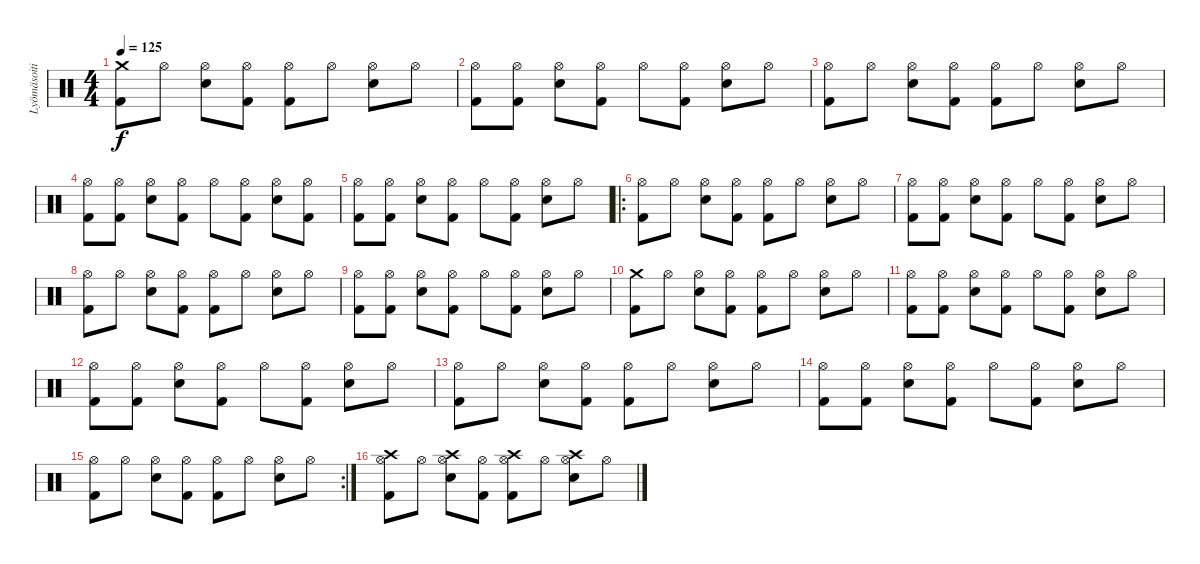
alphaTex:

\track ("Lyömäsoitin" "Lyömäsoiti") {instrument percussion}
\staff {score}
\articulation defaults
\ts (4 4)
\tempo 125
\clef neutral
\ks c
("Crash medium (hit)" "Kick (hit) 2").8{dy f} "Hi-Hat (open)".8 ("Hi-Hat (open)" "Snare (hit) 2").8 ("Hi-Hat (open)" "Kick (hit) 2").8 ("Hi-Hat (open)" "Kick (hit) 2").8 "Hi-Hat (open)".8 ("Hi-Hat (open)" "Snare (hit) 2").8 "Hi-Hat (open)".8 |
("Hi-Hat (open)" "Kick (hit) 2").8 ("Hi-Hat (open)" "Kick (hit) 2").8 ("Hi-Hat (open)" "Snare (hit) 2").8 ("Hi-Hat (open)" "Kick (hit) 2").8 "Hi-Hat (open)".8 ("Hi-Hat (open)" "Kick (hit) 2").8 ("Hi-Hat (open)" "Snare (hit) 2").8 "Hi-Hat (open)".8 |
("Hi-Hat (open)" "Kick (hit) 2").8 "Hi-Hat (open)".8 ("Hi-Hat (open)" "Snare (hit) 2").8 ("Hi-Hat (open)" "Kick (hit) 2").8 ("Hi-Hat (open)" "Kick (hit) 2").8 "Hi-Hat (open)".8 ("Hi-Hat (open)" "Snare (hit) 2").8 "Hi-Hat (open)".8 |
("Hi-Hat (open)" "Kick (hit) 2").8 ("Hi-Hat (open)" "Kick (hit) 2").8 ("Hi-Hat (open)" "Snare (hit) 2").8 ("Hi-Hat (open)" "Kick (hit) 2").8 "Hi-Hat (open)".8 ("Hi-Hat (open)" "Kick (hit) 2").8 ("Hi-Hat (open)" "Snare (hit) 2").8 ("Hi-Hat (open)" "Kick (hit) 2").8 |
("Hi-Hat (open)" "Kick (hit) 2").8 ("Hi-Hat (open)" "Kick (hit) 2").8 ("Hi-Hat (open)" "Snare (hit) 2").8 ("Hi-Hat (open)" "Kick (hit) 2").8 "Hi-Hat (open)".8 ("Hi-Hat (open)" "Kick (hit) 2").8 ("Hi-Hat (open)" "Snare (hit) 2").8 "Hi-Hat (open)".8 |
\ro
("Hi-Hat (open)" "Kick (hit) 2").8 "Hi-Hat (open)".8 ("Hi-Hat (open)" "Snare (hit) 2").8 ("Hi-Hat (open)" "Kick (hit) 2").8 ("Hi-Hat (open)" "Kick (hit) 2").8 "Hi-Hat (open)".8 ("Hi-Hat (open)" "Snare (hit) 2").8 "Hi-Hat (open)".8 |
("Hi-Hat (open)" "Kick (hit) 2").8 ("Hi-Hat (open)" "Kick (hit) 2").8 ("Hi-Hat (open)" "Snare (hit) 2").8 ("Hi-Hat (open)" "Kick (hit) 2").8 "Hi-Hat (open)".8 ("Hi-Hat (open)" "Kick (hit) 2").8 ("Hi-Hat (open)" "Snare (hit) 2").8 "Hi-Hat (open)".8 |
("Hi-Hat (open)" "Kick (hit) 2").8 "Hi-Hat (open)".8 ("Hi-Hat (open)" "Snare (hit) 2").8 ("Hi-Hat (open)" "Kick (hit) 2").8 ("Hi-Hat (open)" "Kick (hit) 2").8 "Hi-Hat (open)".8 ("Hi-Hat (open)" "Snare (hit) 2").8 "Hi-Hat (open)".8 |
("Hi-Hat (open)" "Kick (hit) 2").8 ("Hi-Hat (open)" "Kick (hit) 2").8 ("Hi-Hat (open)" "Snare (hit) 2").8 ("Hi-Hat (open)" "Kick (hit) 2").8 "Hi-Hat (open)".8 ("Hi-Hat (open)" "Kick (hit) 2").8 ("Hi-Hat (open)" "Snare (hit) 2").8 "Hi-Hat (open)".8 |
("Crash medium (hit)" "Kick (hit) 2").8 "Hi-Hat (open)".8 ("Hi-Hat (open)" "Snare (hit) 2").8 ("Hi-Hat (open)" "Kick (hit) 2").8 ("Hi-Hat (open)" "Kick (hit) 2").8 "Hi-Hat (open)".8 ("Hi-Hat (open)" "Snare (hit) 2").8 "Hi-Hat (open)".8 |
("Hi-Hat (open)" "Kick (hit) 2").8 ("Hi-Hat (open)" "Kick (hit) 2").8 ("Hi-Hat (open)" "Snare (hit) 2").8 ("Hi-Hat (open)" "Kick (hit) 2").8 "Hi-Hat (open)".8 ("Hi-Hat (open)" "Kick (hit) 2").8 ("Hi-Hat (open)" "Snare (hit) 2").8 "Hi-Hat (open)".8 |
("Hi-Hat (open)" "Kick (hit) 2").8 ("Hi-Hat (open)" "Kick (hit) 2").8 ("Hi-Hat (open)" "Snare (hit) 2").8 ("Hi-Hat (open)" "Kick (hit) 2").8 "Hi-Hat (open)".8 ("Hi-Hat (open)" "Kick (hit) 2").8 ("Hi-Hat (open)" "Snare (hit) 2").8 "Hi-Hat (open)".8 |
("Hi-Hat (open)" "Kick (hit) 2").8 "Hi-Hat (open)".8 ("Hi-Hat (open)" "Snare (hit) 2").8 ("Hi-Hat (open)" "Kick (hit) 2").8 ("Hi-Hat (open)" "Kick (hit) 2").8 "Hi-Hat (open)".8 ("Hi-Hat (open)" "Snare (hit) 2").8 "Hi-Hat (open)".8 |
("Hi-Hat (open)" "Kick (hit) 2").8 ("Hi-Hat (open)" "Kick (hit) 2").8 ("Hi-Hat (open)" "Snare (hit) 2").8 ("Hi-Hat (open)" "Kick (hit) 2").8 "Hi-Hat (open)".8 ("Hi-Hat (open)" "Kick (hit) 2").8 ("Hi-Hat (open)" "Snare (hit) 2").8 "Hi-Hat (open)".8 |
\rc 2
("Hi-Hat (open)" "Kick (hit) 2").8 "Hi-Hat (open)".8 ("Hi-Hat (open)" "Snare (hit) 2").8 ("Hi-Hat (open)" "Kick (hit) 2").8 ("Hi-Hat (open)" "Kick (hit) 2").8 "Hi-Hat (open)".8 ("Hi-Hat (open)" "Snare (hit) 2").8 "Hi-Hat (open)".8 |
("Crash high (hit)" "Hi-Hat (open)" "Kick (hit) 2").8 "Hi-Hat (open)".8 ("Crash high (hit)" "Hi-Hat (open)" "Snare (hit) 2").8 ("Hi-Hat (open)" "Kick (hit) 2").8 ("Crash high (hit)" "Hi-Hat (open)" "Kick (hit) 2").8 "Hi-Hat (open)".8 ("Crash high (hit)" "Hi-Hat (open)" "Snare (hit) 2").8 "Hi-Hat (open)".8
